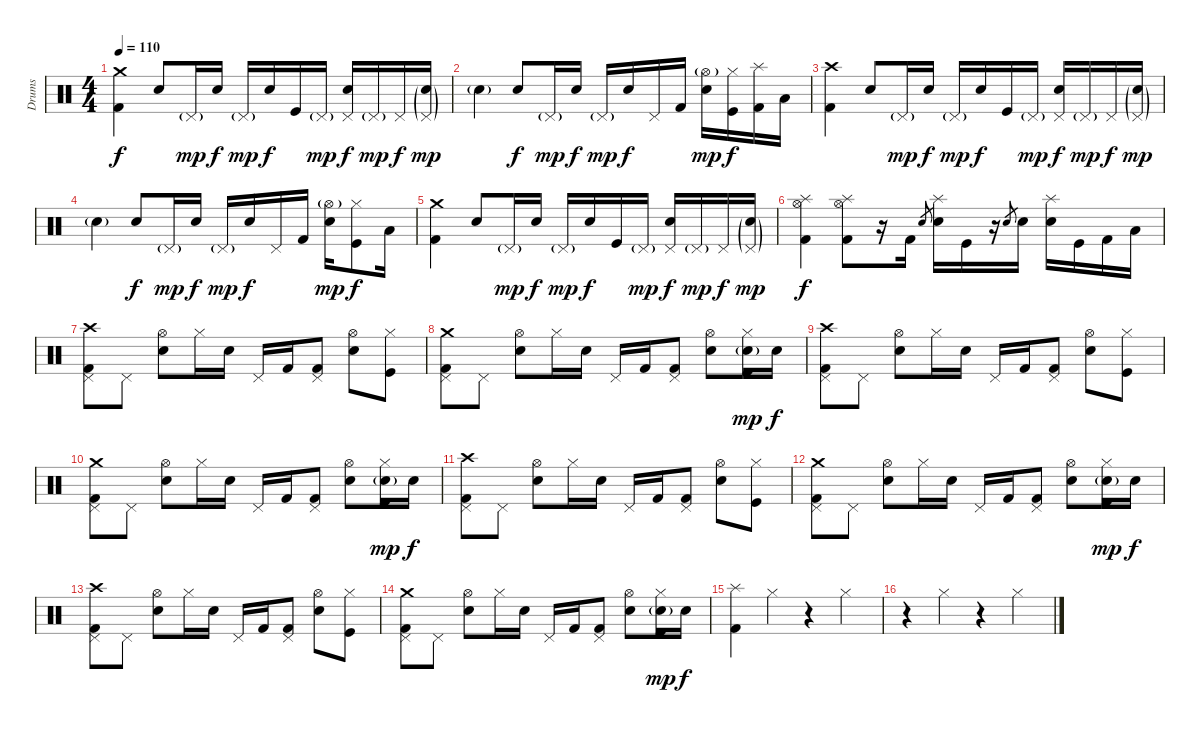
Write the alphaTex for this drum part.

\track ("Drums" "Drums") {instrument percussion}
\staff {score}
\articulation defaults
\ts (4 4)
\tempo 110
\clef neutral
\ks c
("Crash medium (hit)" "Kick (hit) 2").4{dy f} "Electric Snare (hit)".8 "Pedal Hi-Hat (hit)"{g}.16{dy mp} "Electric Snare (hit)".16{dy f} "Pedal Hi-Hat (hit)"{g}.16{dy mp} "Electric Snare (hit)".16{dy f} "Kick (hit)".16 "Pedal Hi-Hat (hit)"{g}.16{dy mp} ("Pedal Hi-Hat (hit)" "Electric Snare (hit)").16{dy f} "Pedal Hi-Hat (hit)"{g}.16{dy mp} "Pedal Hi-Hat (hit)".16{dy f} ("Pedal Hi-Hat (hit)"{g} "Electric Snare (hit)"{g}).16{dy mp} |
"Electric Snare (hit)"{g}.4 "Electric Snare (hit)".8{dy f} "Pedal Hi-Hat (hit)"{g}.16{dy mp} "Electric Snare (hit)".16{dy f} "Pedal Hi-Hat (hit)"{g}.16{dy mp} "Electric Snare (hit)".16{dy f} "Pedal Hi-Hat (hit)".16 "Kick (hit) 2".16 ("Hi-Hat (open)"{g} "Electric Snare (hit)").16{dy mp} ("Hi-Hat (closed)" "Kick (hit)").16{dy f} ("Splash (hit)" "Kick (hit) 2").16 "Low Floor Tom (hit)".16 |
("Crash high (hit)" "Kick (hit) 2").4 "Electric Snare (hit)".8 "Pedal Hi-Hat (hit)"{g}.16{dy mp} "Electric Snare (hit)".16{dy f} "Pedal Hi-Hat (hit)"{g}.16{dy mp} "Electric Snare (hit)".16{dy f} "Kick (hit)".16 "Pedal Hi-Hat (hit)"{g}.16{dy mp} ("Pedal Hi-Hat (hit)" "Electric Snare (hit)").16{dy f} "Pedal Hi-Hat (hit)"{g}.16{dy mp} "Pedal Hi-Hat (hit)".16{dy f} ("Pedal Hi-Hat (hit)"{g} "Electric Snare (hit)"{g}).16{dy mp} |
"Electric Snare (hit)"{g}.4 "Electric Snare (hit)".8{dy f} "Pedal Hi-Hat (hit)"{g}.16{dy mp} "Electric Snare (hit)".16{dy f} "Pedal Hi-Hat (hit)"{g}.16{dy mp} "Electric Snare (hit)".16{dy f} "Pedal Hi-Hat (hit)".16 "Kick (hit) 2".16 ("Hi-Hat (open)"{g} "Electric Snare (hit)").16{dy mp} ("Hi-Hat (closed)" "Kick (hit)").8{dy f} "Low Floor Tom (hit)".16 |
("Crash medium (hit)" "Kick (hit) 2").4 "Electric Snare (hit)".8 "Pedal Hi-Hat (hit)"{g}.16{dy mp} "Electric Snare (hit)".16{dy f} "Pedal Hi-Hat (hit)"{g}.16{dy mp} "Electric Snare (hit)".16{dy f} "Kick (hit)".16 "Pedal Hi-Hat (hit)"{g}.16{dy mp} ("Pedal Hi-Hat (hit)" "Electric Snare (hit)").16{dy f} "Pedal Hi-Hat (hit)"{g}.16{dy mp} "Pedal Hi-Hat (hit)".16{dy f} ("Pedal Hi-Hat (hit)"{g} "Electric Snare (hit)"{g}).16{dy mp} |
("Hi-Hat (open)" "Splash (hit)" "Kick (hit) 2").4{dy f} ("Hi-Hat (open)" "Splash (hit)" "Kick (hit) 2").8 r.16 "Kick (hit) 2".16 "Electric Snare (hit)"{sl}.8{gr} ("Splash (hit)" "Electric Snare (hit)").16 "Kick (hit)".16 r.16 "Electric Snare (hit)"{sl}.8{gr} "Electric Snare (hit)".16 ("Splash (hit)" "Electric Snare (hit)").16 "Kick (hit)".16 "Kick (hit) 2".16 "Low Floor Tom (hit)".16 |
("Pedal Hi-Hat (hit)" "Crash high (hit)" "Kick (hit) 2").8 "Pedal Hi-Hat (hit)".8 ("Hi-Hat (open)" "Electric Snare (hit)").8 "Hi-Hat (closed)".16 "Electric Snare (hit)".16 "Pedal Hi-Hat (hit)".16 "Kick (hit) 2".16 ("Pedal Hi-Hat (hit)" "Kick (hit) 2").8 ("Hi-Hat (open)" "Electric Snare (hit)").8 ("Hi-Hat (closed)" "Kick (hit)").8 |
("Pedal Hi-Hat (hit)" "Crash medium (hit)" "Kick (hit) 2").8 "Pedal Hi-Hat (hit)".8 ("Hi-Hat (open)" "Electric Snare (hit)").8 "Hi-Hat (closed)".16 "Electric Snare (hit)".16 "Pedal Hi-Hat (hit)".16 "Kick (hit) 2".16 ("Pedal Hi-Hat (hit)" "Kick (hit) 2").8 ("Hi-Hat (open)" "Electric Snare (hit)").8 ("Hi-Hat (closed)" "Electric Snare (hit)"{g} "Kick (hit)").16{dy mp} "Electric Snare (hit)".16{dy f} |
("Pedal Hi-Hat (hit)" "Crash high (hit)" "Kick (hit) 2").8 "Pedal Hi-Hat (hit)".8 ("Hi-Hat (open)" "Electric Snare (hit)").8 "Hi-Hat (closed)".16 "Electric Snare (hit)".16 "Pedal Hi-Hat (hit)".16 "Kick (hit) 2".16 ("Pedal Hi-Hat (hit)" "Kick (hit) 2").8 ("Hi-Hat (open)" "Electric Snare (hit)").8 ("Hi-Hat (closed)" "Kick (hit)").8 |
("Pedal Hi-Hat (hit)" "Crash medium (hit)" "Kick (hit) 2").8 "Pedal Hi-Hat (hit)".8 ("Hi-Hat (open)" "Electric Snare (hit)").8 "Hi-Hat (closed)".16 "Electric Snare (hit)".16 "Pedal Hi-Hat (hit)".16 "Kick (hit) 2".16 ("Pedal Hi-Hat (hit)" "Kick (hit) 2").8 ("Hi-Hat (open)" "Electric Snare (hit)").8 ("Hi-Hat (closed)" "Electric Snare (hit)"{g} "Kick (hit)").16{dy mp} "Electric Snare (hit)".16{dy f} |
("Pedal Hi-Hat (hit)" "Crash high (hit)" "Kick (hit) 2").8 "Pedal Hi-Hat (hit)".8 ("Hi-Hat (open)" "Electric Snare (hit)").8 "Hi-Hat (closed)".16 "Electric Snare (hit)".16 "Pedal Hi-Hat (hit)".16 "Kick (hit) 2".16 ("Pedal Hi-Hat (hit)" "Kick (hit) 2").8 ("Hi-Hat (open)" "Electric Snare (hit)").8 ("Hi-Hat (closed)" "Kick (hit)").8 |
("Pedal Hi-Hat (hit)" "Crash medium (hit)" "Kick (hit) 2").8 "Pedal Hi-Hat (hit)".8 ("Hi-Hat (open)" "Electric Snare (hit)").8 "Hi-Hat (closed)".16 "Electric Snare (hit)".16 "Pedal Hi-Hat (hit)".16 "Kick (hit) 2".16 ("Pedal Hi-Hat (hit)" "Kick (hit) 2").8 ("Hi-Hat (open)" "Electric Snare (hit)").8 ("Hi-Hat (closed)" "Electric Snare (hit)"{g} "Kick (hit)").16{dy mp} "Electric Snare (hit)".16{dy f} |
("Pedal Hi-Hat (hit)" "Crash high (hit)" "Kick (hit) 2").8 "Pedal Hi-Hat (hit)".8 ("Hi-Hat (open)" "Electric Snare (hit)").8 "Hi-Hat (closed)".16 "Electric Snare (hit)".16 "Pedal Hi-Hat (hit)".16 "Kick (hit) 2".16 ("Pedal Hi-Hat (hit)" "Kick (hit) 2").8 ("Hi-Hat (open)" "Electric Snare (hit)").8 ("Hi-Hat (closed)" "Kick (hit)").8 |
("Pedal Hi-Hat (hit)" "Crash medium (hit)" "Kick (hit) 2").8 "Pedal Hi-Hat (hit)".8 ("Hi-Hat (open)" "Electric Snare (hit)").8 "Hi-Hat (closed)".16 "Electric Snare (hit)".16 "Pedal Hi-Hat (hit)".16 "Kick (hit) 2".16 ("Pedal Hi-Hat (hit)" "Kick (hit) 2").8 ("Hi-Hat (open)" "Electric Snare (hit)").8 ("Hi-Hat (closed)" "Electric Snare (hit)"{g} "Kick (hit)").16{dy mp} "Electric Snare (hit)".16{dy f} |
("Splash (hit)" "Kick (hit) 2").4 "Hi-Hat (closed)".4 r.4 "Hi-Hat (closed)".4 |
r.4 "Hi-Hat (closed)".4 r.4 "Hi-Hat (closed)".4
